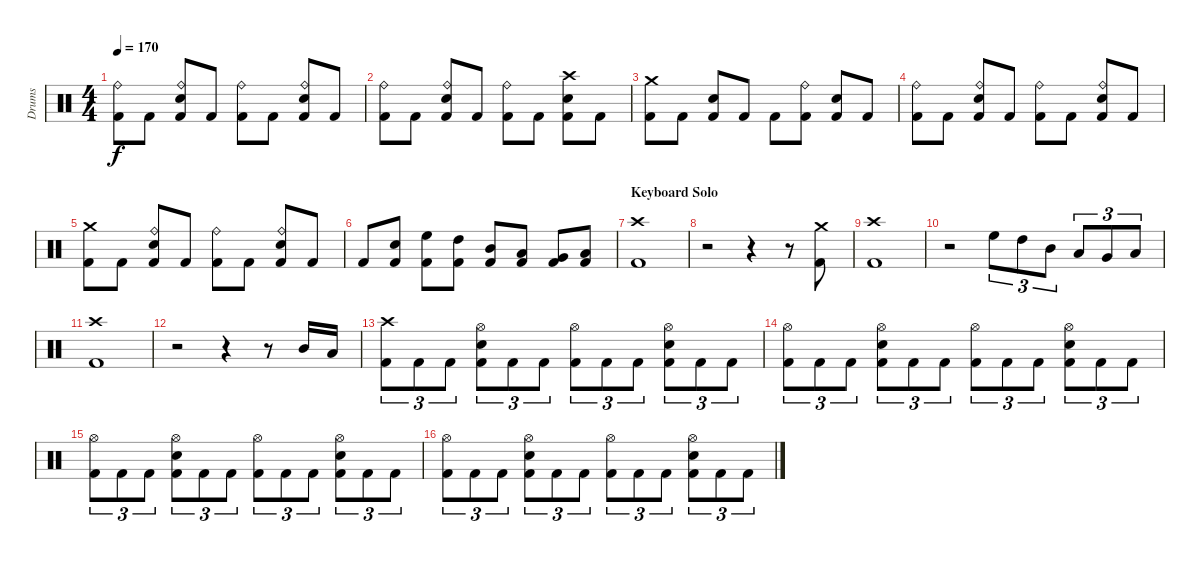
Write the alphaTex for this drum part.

\track ("Drums" "Drums") {instrument percussion}
\staff {score}
\articulation defaults
\ts (4 4)
\tempo 170
\clef neutral
\ks c
("Kick (hit) 2" "Ride (bell)").8{dy f} "Kick (hit) 2".8 ("Kick (hit) 2" "Electric Snare (hit)" "Ride (bell)").8 "Kick (hit) 2".8 ("Kick (hit) 2" "Ride (bell)").8 "Kick (hit) 2".8 ("Kick (hit) 2" "Electric Snare (hit)" "Ride (bell)").8 "Kick (hit) 2".8 |
("Kick (hit) 2" "Ride (bell)").8 "Kick (hit) 2".8 ("Kick (hit) 2" "Electric Snare (hit)" "Ride (bell)").8 "Kick (hit) 2".8 ("Kick (hit) 2" "Ride (bell)").8 "Kick (hit) 2".8 ("Kick (hit) 2" "Electric Snare (hit)" "Crash high (hit)").8 "Kick (hit) 2".8 |
("Kick (hit) 2" "Crash medium (hit)").8 "Kick (hit) 2".8 ("Kick (hit) 2" "Electric Snare (hit)").8 "Kick (hit) 2".8 "Kick (hit) 2".8 ("Kick (hit) 2" "Ride (bell)").8 ("Kick (hit) 2" "Electric Snare (hit)").8 "Kick (hit) 2".8 |
("Kick (hit) 2" "Ride (bell)").8 "Kick (hit) 2".8 ("Kick (hit) 2" "Electric Snare (hit)" "Ride (bell)").8 "Kick (hit) 2".8 ("Kick (hit) 2" "Ride (bell)").8 "Kick (hit) 2".8 ("Kick (hit) 2" "Electric Snare (hit)" "Ride (bell)").8 "Kick (hit) 2".8 |
("Kick (hit) 2" "Crash medium (hit)").8 "Kick (hit) 2".8 ("Kick (hit) 2" "Electric Snare (hit)" "Ride (bell)").8 "Kick (hit) 2".8 ("Kick (hit) 2" "Ride (bell)").8 "Kick (hit) 2".8 ("Kick (hit) 2" "Electric Snare (hit)" "Ride (bell)").8 "Kick (hit) 2".8 |
"Kick (hit) 2".8 ("Kick (hit) 2" "Electric Snare (hit)").8 ("Kick (hit) 2" "High Floor Tom (hit)").8 ("Kick (hit) 2" "High Tom (hit)").8 ("Kick (hit) 2" "Mid Tom (hit)").8 ("Kick (hit) 2" "Low Tom (hit)").8 ("Kick (hit) 2" "Very Low Tom (hit)").8 ("Kick (hit) 2" "Low Floor Tom (hit)").8 |
\section ("" "Keyboard Solo")
("Kick (hit) 2" "Crash high (hit)").1 |
r.2 r.4 r.8 ("Kick (hit) 2" "Crash medium (hit)").8 |
("Kick (hit) 2" "Crash high (hit)").1 |
r.2 "High Floor Tom (hit)".8{tu (3 2)} "High Tom (hit)".8{tu (3 2)} "Mid Tom (hit)".8{tu (3 2)} "Low Tom (hit)".8{tu (3 2)} "Very Low Tom (hit)".8{tu (3 2)} "Low Floor Tom (hit)".8{tu (3 2)} |
("Kick (hit) 2" "Crash high (hit)").1 |
r.2 r.4 r.8 "Mid Tom (hit)".16 "Low Tom (hit)".16 |
("Kick (hit) 2" "Crash high (hit)").8{tu (3 2)} "Kick (hit) 2".8{tu (3 2)} "Kick (hit) 2".8{tu (3 2)} ("Kick (hit) 2" "Electric Snare (hit)" "Hi-Hat (open)").8{tu (3 2)} "Kick (hit) 2".8{tu (3 2)} "Kick (hit) 2".8{tu (3 2)} ("Kick (hit) 2" "Hi-Hat (open)").8{tu (3 2)} "Kick (hit) 2".8{tu (3 2)} "Kick (hit) 2".8{tu (3 2)} ("Kick (hit) 2" "Electric Snare (hit)" "Hi-Hat (open)").8{tu (3 2)} "Kick (hit) 2".8{tu (3 2)} "Kick (hit) 2".8{tu (3 2)} |
("Kick (hit) 2" "Hi-Hat (open)").8{tu (3 2)} "Kick (hit) 2".8{tu (3 2)} "Kick (hit) 2".8{tu (3 2)} ("Kick (hit) 2" "Electric Snare (hit)" "Hi-Hat (open)").8{tu (3 2)} "Kick (hit) 2".8{tu (3 2)} "Kick (hit) 2".8{tu (3 2)} ("Kick (hit) 2" "Hi-Hat (open)").8{tu (3 2)} "Kick (hit) 2".8{tu (3 2)} "Kick (hit) 2".8{tu (3 2)} ("Kick (hit) 2" "Electric Snare (hit)" "Hi-Hat (open)").8{tu (3 2)} "Kick (hit) 2".8{tu (3 2)} "Kick (hit) 2".8{tu (3 2)} |
("Kick (hit) 2" "Hi-Hat (open)").8{tu (3 2)} "Kick (hit) 2".8{tu (3 2)} "Kick (hit) 2".8{tu (3 2)} ("Kick (hit) 2" "Electric Snare (hit)" "Hi-Hat (open)").8{tu (3 2)} "Kick (hit) 2".8{tu (3 2)} "Kick (hit) 2".8{tu (3 2)} ("Kick (hit) 2" "Hi-Hat (open)").8{tu (3 2)} "Kick (hit) 2".8{tu (3 2)} "Kick (hit) 2".8{tu (3 2)} ("Kick (hit) 2" "Electric Snare (hit)" "Hi-Hat (open)").8{tu (3 2)} "Kick (hit) 2".8{tu (3 2)} "Kick (hit) 2".8{tu (3 2)} |
("Kick (hit) 2" "Hi-Hat (open)").8{tu (3 2)} "Kick (hit) 2".8{tu (3 2)} "Kick (hit) 2".8{tu (3 2)} ("Kick (hit) 2" "Electric Snare (hit)" "Hi-Hat (open)").8{tu (3 2)} "Kick (hit) 2".8{tu (3 2)} "Kick (hit) 2".8{tu (3 2)} ("Kick (hit) 2" "Hi-Hat (open)").8{tu (3 2)} "Kick (hit) 2".8{tu (3 2)} "Kick (hit) 2".8{tu (3 2)} ("Kick (hit) 2" "Electric Snare (hit)" "Hi-Hat (open)").8{tu (3 2)} "Kick (hit) 2".8{tu (3 2)} "Kick (hit) 2".8{tu (3 2)}
